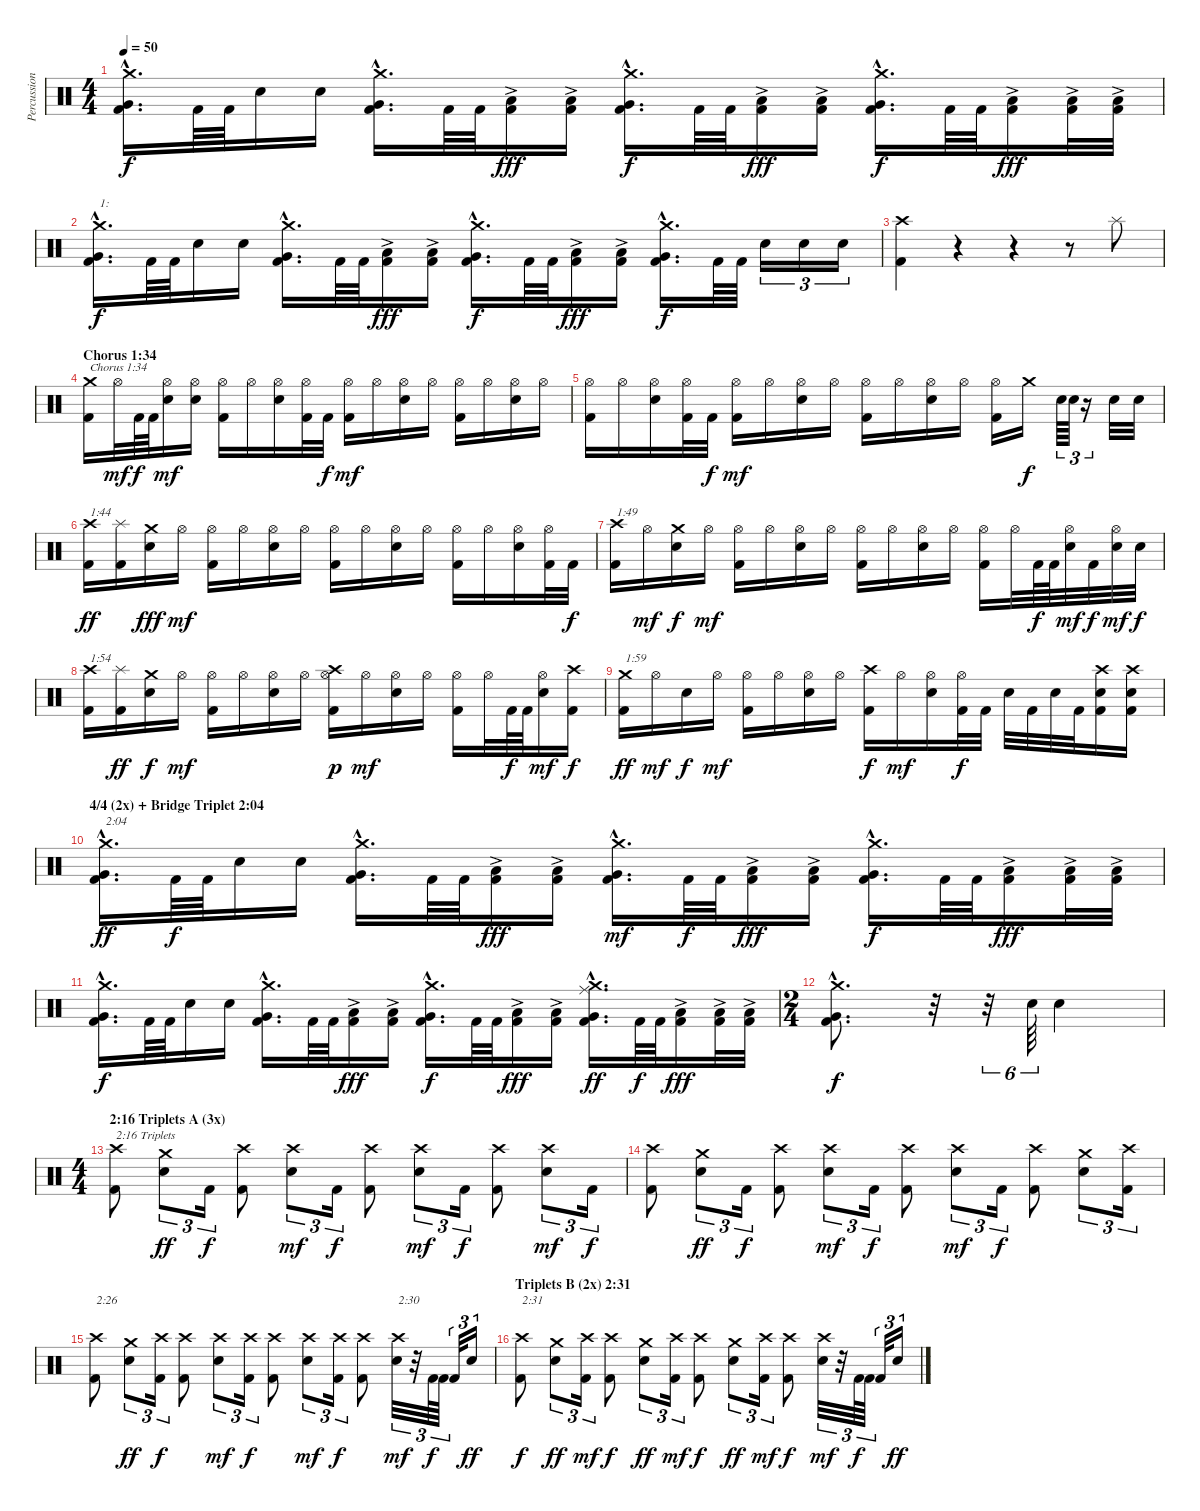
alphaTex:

\track ("Percussion" "Percussion") {instrument percussion}
\staff {score}
\articulation defaults
\ts (4 4)
\tempo 50
\clef neutral
\ks c
("Kick (hit) 2"{hac} "Very Low Tom (hit)"{hac} "Crash medium (hit)"{hac}).16{d dy f} "Kick (hit) 2".64 "Kick (hit) 2".64 "Electric Snare (hit)".16 "Electric Snare (hit)".16 ("Kick (hit) 2"{hac} "Very Low Tom (hit)"{hac} "Crash medium (hit)"{hac}).16{d} "Kick (hit) 2".64 "Kick (hit) 2".64 ("Kick (hit) 2" "Low Tom (hit)"{ac}).16{dy fff} ("Kick (hit) 2" "Low Tom (hit)"{ac}).16 ("Kick (hit) 2"{hac} "Very Low Tom (hit)"{hac} "Crash medium (hit)"{hac}).16{d dy f} "Kick (hit) 2".64 "Kick (hit) 2".64 ("Kick (hit) 2" "Low Tom (hit)"{ac}).16{dy fff} ("Kick (hit) 2" "Low Tom (hit)"{ac}).16 ("Kick (hit) 2"{hac} "Very Low Tom (hit)"{hac} "Crash medium (hit)"{hac}).16{d dy f} "Kick (hit) 2".64 "Kick (hit) 2".64 ("Kick (hit) 2" "Low Tom (hit)"{ac}).16{dy fff} ("Kick (hit) 2" "Low Tom (hit)"{ac}).32 ("Kick (hit) 2" "Low Tom (hit)"{ac}).32 |
("Kick (hit) 2"{hac} "Very Low Tom (hit)"{hac} "Crash medium (hit)"{hac}).16{d txt "1:" dy f} "Kick (hit) 2".64 "Kick (hit) 2".64 "Electric Snare (hit)".16 "Electric Snare (hit)".16 ("Kick (hit) 2"{hac} "Very Low Tom (hit)"{hac} "Crash medium (hit)"{hac}).16{d} "Kick (hit) 2".64 "Kick (hit) 2".64 ("Kick (hit) 2" "Low Tom (hit)"{ac}).16{dy fff} ("Kick (hit) 2" "Low Tom (hit)"{ac}).16 ("Kick (hit) 2"{hac} "Very Low Tom (hit)"{hac} "Crash medium (hit)"{hac}).16{d dy f} "Kick (hit) 2".64 "Kick (hit) 2".64 ("Kick (hit) 2" "Low Tom (hit)"{ac}).16{dy fff} ("Kick (hit) 2" "Low Tom (hit)"{ac}).16 ("Kick (hit) 2"{hac} "Very Low Tom (hit)"{hac} "Crash medium (hit)"{hac}).16{d dy f} "Kick (hit) 2".64 "Kick (hit) 2".64 "Electric Snare (hit)".16{tu (3 2)} "Electric Snare (hit)".16{tu (3 2)} "Electric Snare (hit)".16{tu (3 2)} |
("Kick (hit) 2" "Crash high (hit)").4 r.4 r.4 r.8 "Splash (hit)".8 |
\section ("" "Chorus 1:34")
("Kick (hit) 2" "Crash medium (hit)").16{txt "Chorus 1:34"} "Hi-Hat (open)".32{dy mf} "Kick (hit) 2".64{dy f} "Kick (hit) 2".64 ("Electric Snare (hit)" "Hi-Hat (open)").16{dy mf} ("Electric Snare (hit)" "Hi-Hat (open)").16 ("Kick (hit) 2" "Hi-Hat (open)").16 "Hi-Hat (open)".16 ("Electric Snare (hit)" "Hi-Hat (open)").16 ("Kick (hit) 2" "Hi-Hat (open)").32 "Kick (hit) 2".32{dy f} ("Kick (hit) 2" "Hi-Hat (open)").16{dy mf} "Hi-Hat (open)".16 ("Electric Snare (hit)" "Hi-Hat (open)").16 "Hi-Hat (open)".16 ("Kick (hit) 2" "Hi-Hat (open)").16 "Hi-Hat (open)".16 ("Electric Snare (hit)" "Hi-Hat (open)").16 "Hi-Hat (open)".16 |
("Kick (hit) 2" "Hi-Hat (open)").16 "Hi-Hat (open)".16 ("Electric Snare (hit)" "Hi-Hat (open)").16 ("Kick (hit) 2" "Hi-Hat (open)").32 "Kick (hit) 2".32{dy f} ("Kick (hit) 2" "Hi-Hat (open)").16{dy mf} "Hi-Hat (open)".16 ("Electric Snare (hit)" "Hi-Hat (open)").16 "Hi-Hat (open)".16 ("Kick (hit) 2" "Hi-Hat (open)").16 "Hi-Hat (open)".16 ("Electric Snare (hit)" "Hi-Hat (open)").16 "Hi-Hat (open)".16 ("Kick (hit) 2" "Hi-Hat (open)").16 "Crash medium (hit)".16{dy f} "Electric Snare (hit)".64{tu (3 2)} "Electric Snare (hit)".64{tu (3 2)} r.16{tu (3 2)} "Electric Snare (hit)".32 "Electric Snare (hit)".32 |
("Kick (hit) 2" "Crash high (hit)").16{txt "1:44" dy ff} ("Kick (hit) 2" "Splash (hit)").16 ("Electric Snare (hit)" "Crash medium (hit)").16{dy fff} "Hi-Hat (open)".16{dy mf} ("Kick (hit) 2" "Hi-Hat (open)").16 "Hi-Hat (open)".16 ("Electric Snare (hit)" "Hi-Hat (open)").16 "Hi-Hat (open)".16 ("Kick (hit) 2" "Hi-Hat (open)").16 "Hi-Hat (open)".16 ("Electric Snare (hit)" "Hi-Hat (open)").16 "Hi-Hat (open)".16 ("Kick (hit) 2" "Hi-Hat (open)").16 "Hi-Hat (open)".16 ("Electric Snare (hit)" "Hi-Hat (open)").16 ("Kick (hit) 2" "Hi-Hat (open)").32 "Kick (hit) 2".32{dy f} |
("Kick (hit) 2" "Crash high (hit)").16{txt "1:49"} "Hi-Hat (open)".16{dy mf} ("Electric Snare (hit)" "Crash medium (hit)").16{dy f} "Hi-Hat (open)".16{dy mf} ("Kick (hit) 2" "Hi-Hat (open)").16 "Hi-Hat (open)".16 ("Electric Snare (hit)" "Hi-Hat (open)").16 "Hi-Hat (open)".16 ("Kick (hit) 2" "Hi-Hat (open)").16 "Hi-Hat (open)".16 ("Electric Snare (hit)" "Hi-Hat (open)").16 "Hi-Hat (open)".16 ("Kick (hit) 2" "Hi-Hat (open)").16 "Hi-Hat (open)".32 "Kick (hit) 2".64{dy f} "Kick (hit) 2".64 ("Electric Snare (hit)" "Hi-Hat (open)").32{dy mf} "Kick (hit) 2".32{dy f} ("Electric Snare (hit)" "Hi-Hat (open)").32{dy mf} "Electric Snare (hit)".32{dy f} |
("Kick (hit) 2" "Crash high (hit)").16{txt "1:54"} ("Kick (hit) 2" "Splash (hit)").16{dy ff} ("Electric Snare (hit)" "Crash medium (hit)").16{dy f} "Hi-Hat (open)".16{dy mf} ("Kick (hit) 2" "Hi-Hat (open)").16 "Hi-Hat (open)".16 ("Electric Snare (hit)" "Hi-Hat (open)").16 "Hi-Hat (open)".16 ("Kick (hit) 2" "Hi-Hat (open)" "Crash high (hit)").16{dy p} "Hi-Hat (open)".16{dy mf} ("Electric Snare (hit)" "Hi-Hat (open)").16 "Hi-Hat (open)".16 ("Kick (hit) 2" "Hi-Hat (open)").16 "Hi-Hat (open)".32 "Kick (hit) 2".64{dy f} "Kick (hit) 2".64 ("Electric Snare (hit)" "Hi-Hat (open)").16{dy mf} ("Kick (hit) 2" "Crash high (hit)").16{dy f} |
("Kick (hit) 2" "Crash medium (hit)").16{txt "1:59" dy ff} "Hi-Hat (open)".16{dy mf} "Electric Snare (hit)".16{dy f} "Hi-Hat (open)".16{dy mf} ("Kick (hit) 2" "Hi-Hat (open)").16 "Hi-Hat (open)".16 ("Electric Snare (hit)" "Hi-Hat (open)").16 "Hi-Hat (open)".16 ("Kick (hit) 2" "Crash high (hit)").16{dy f} "Hi-Hat (open)".16{dy mf} ("Electric Snare (hit)" "Hi-Hat (open)").16 ("Kick (hit) 2" "Hi-Hat (open)").32{dy f} "Kick (hit) 2".32 "Electric Snare (hit)".32 "Kick (hit) 2".32 "Electric Snare (hit)".32 "Kick (hit) 2".32 ("Kick (hit) 2" "Electric Snare (hit)" "Crash high (hit)").16 ("Kick (hit) 2" "Electric Snare (hit)" "Crash high (hit)").16 |
\section ("" "4/4 (2x) + Bridge Triplet 2:04")
("Kick (hit) 2"{hac} "Very Low Tom (hit)"{hac} "Crash medium (hit)"{hac}).16{d txt "2:04" dy ff} "Kick (hit) 2".64{dy f} "Kick (hit) 2".64 "Electric Snare (hit)".16 "Electric Snare (hit)".16 ("Kick (hit) 2"{hac} "Very Low Tom (hit)"{hac} "Crash medium (hit)"{hac}).16{d} "Kick (hit) 2".64 "Kick (hit) 2".64 ("Kick (hit) 2" "Low Tom (hit)"{ac}).16{dy fff} ("Kick (hit) 2" "Low Tom (hit)"{ac}).16 ("Kick (hit) 2"{hac} "Very Low Tom (hit)"{hac} "Crash medium (hit)"{hac}).16{d dy mf} "Kick (hit) 2".64{dy f} "Kick (hit) 2".64 ("Kick (hit) 2" "Low Tom (hit)"{ac}).16{dy fff} ("Kick (hit) 2" "Low Tom (hit)"{ac}).16 ("Kick (hit) 2"{hac} "Very Low Tom (hit)"{hac} "Crash medium (hit)"{hac}).16{d dy f} "Kick (hit) 2".64 "Kick (hit) 2".64 ("Kick (hit) 2" "Low Tom (hit)"{ac}).16{dy fff} ("Kick (hit) 2" "Low Tom (hit)"{ac}).32 ("Kick (hit) 2" "Low Tom (hit)"{ac}).32 |
("Kick (hit) 2"{hac} "Very Low Tom (hit)"{hac} "Crash medium (hit)"{hac}).16{d dy f} "Kick (hit) 2".64 "Kick (hit) 2".64 "Electric Snare (hit)".16 "Electric Snare (hit)".16 ("Kick (hit) 2"{hac} "Very Low Tom (hit)"{hac} "Crash medium (hit)"{hac}).16{d} "Kick (hit) 2".64 "Kick (hit) 2".64 ("Kick (hit) 2" "Low Tom (hit)"{ac}).16{dy fff} ("Kick (hit) 2" "Low Tom (hit)"{ac}).16 ("Kick (hit) 2"{hac} "Very Low Tom (hit)"{hac} "Crash medium (hit)"{hac}).16{d dy f} "Kick (hit) 2".64 "Kick (hit) 2".64 ("Kick (hit) 2" "Low Tom (hit)"{ac}).16{dy fff} ("Kick (hit) 2" "Low Tom (hit)"{ac}).16 ("Kick (hit) 2"{hac} "Very Low Tom (hit)"{hac} "Ride (middle)"{hac} "Crash medium (hit)"{hac}).16{d dy ff} "Kick (hit) 2".64{dy f} "Kick (hit) 2".64 ("Kick (hit) 2" "Low Tom (hit)"{ac}).16{dy fff} ("Kick (hit) 2" "Low Tom (hit)"{ac}).32 ("Kick (hit) 2" "Low Tom (hit)"{ac}).32 |
\ts (2 4)
("Kick (hit) 2"{hac} "Very Low Tom (hit)"{hac} "Crash medium (hit)"{hac}).8{d dy f} r.32 r.32{tu (6 4)} "Electric Snare (hit)".64{tu (6 4)} "Electric Snare (hit)".4 |
\ts (4 4)
\section ("" "2:16 Triplets A (3x)")
("Kick (hit) 2" "Crash high (hit)").8{txt "2:16 Triplets"} ("Electric Snare (hit)" "Crash medium (hit)").8{tu (3 2) dy ff} "Kick (hit) 2".16{tu (3 2) dy f} ("Kick (hit) 2" "Crash high (hit)").8 ("Electric Snare (hit)" "Crash high (hit)").8{tu (3 2) dy mf} "Kick (hit) 2".16{tu (3 2) dy f} ("Kick (hit) 2" "Crash high (hit)").8 ("Electric Snare (hit)" "Crash high (hit)").8{tu (3 2) dy mf} "Kick (hit) 2".16{tu (3 2) dy f} ("Kick (hit) 2" "Crash high (hit)").8 ("Electric Snare (hit)" "Crash high (hit)").8{tu (3 2) dy mf} "Kick (hit) 2".16{tu (3 2) dy f} |
("Kick (hit) 2" "Crash high (hit)").8 ("Electric Snare (hit)" "Crash medium (hit)").8{tu (3 2) dy ff} "Kick (hit) 2".16{tu (3 2) dy f} ("Kick (hit) 2" "Crash high (hit)").8 ("Electric Snare (hit)" "Crash high (hit)").8{tu (3 2) dy mf} "Kick (hit) 2".16{tu (3 2) dy f} ("Kick (hit) 2" "Crash high (hit)").8 ("Electric Snare (hit)" "Crash high (hit)").8{tu (3 2) dy mf} "Kick (hit) 2".16{tu (3 2) dy f} ("Kick (hit) 2" "Crash high (hit)").8 ("Electric Snare (hit)" "Crash medium (hit)").8{tu (3 2)} ("Kick (hit) 2" "Crash high (hit)").16{tu (3 2)} |
("Kick (hit) 2" "Crash high (hit)").8{txt "2:26"} ("Electric Snare (hit)" "Crash medium (hit)").8{tu (3 2) dy ff} ("Kick (hit) 2" "Crash high (hit)").16{tu (3 2) dy f} ("Kick (hit) 2" "Crash high (hit)").8 ("Electric Snare (hit)" "Crash high (hit)").8{tu (3 2) dy mf} ("Kick (hit) 2" "Crash high (hit)").16{tu (3 2) dy f} ("Kick (hit) 2" "Crash high (hit)").8 ("Electric Snare (hit)" "Crash high (hit)").8{tu (3 2) dy mf} ("Kick (hit) 2" "Crash high (hit)").16{tu (3 2) dy f} ("Kick (hit) 2" "Crash high (hit)").8 ("Electric Snare (hit)" "Crash high (hit)").32{tu (3 2) txt "2:30" dy mf} r.32{tu (3 2)} "Kick (hit) 2".64{tu (3 2) dy f} "Kick (hit) 2".64{tu (3 2)} "Kick (hit) 2".32{tu (3 2)} "Electric Snare (hit)".16{tu (3 2) dy ff} |
\section ("" "Triplets B (2x) 2:31")
("Kick (hit) 2" "Crash high (hit)").8{txt "2:31" dy f} ("Electric Snare (hit)" "Crash medium (hit)").8{tu (3 2) dy ff} ("Kick (hit) 2" "Crash high (hit)").16{tu (3 2) dy mf} ("Kick (hit) 2" "Crash high (hit)").8{dy f} ("Electric Snare (hit)" "Crash medium (hit)").8{tu (3 2) dy ff} ("Kick (hit) 2" "Crash high (hit)").16{tu (3 2) dy mf} ("Kick (hit) 2" "Crash high (hit)").8{dy f} ("Electric Snare (hit)" "Crash medium (hit)").8{tu (3 2) dy ff} ("Kick (hit) 2" "Crash high (hit)").16{tu (3 2) dy mf} ("Kick (hit) 2" "Crash high (hit)").8{dy f} ("Electric Snare (hit)" "Crash high (hit)").32{tu (3 2) dy mf} r.32{tu (3 2)} "Kick (hit) 2".64{tu (3 2) dy f} "Kick (hit) 2".64{tu (3 2)} "Kick (hit) 2".32{tu (3 2)} "Electric Snare (hit)".16{tu (3 2) dy ff}
